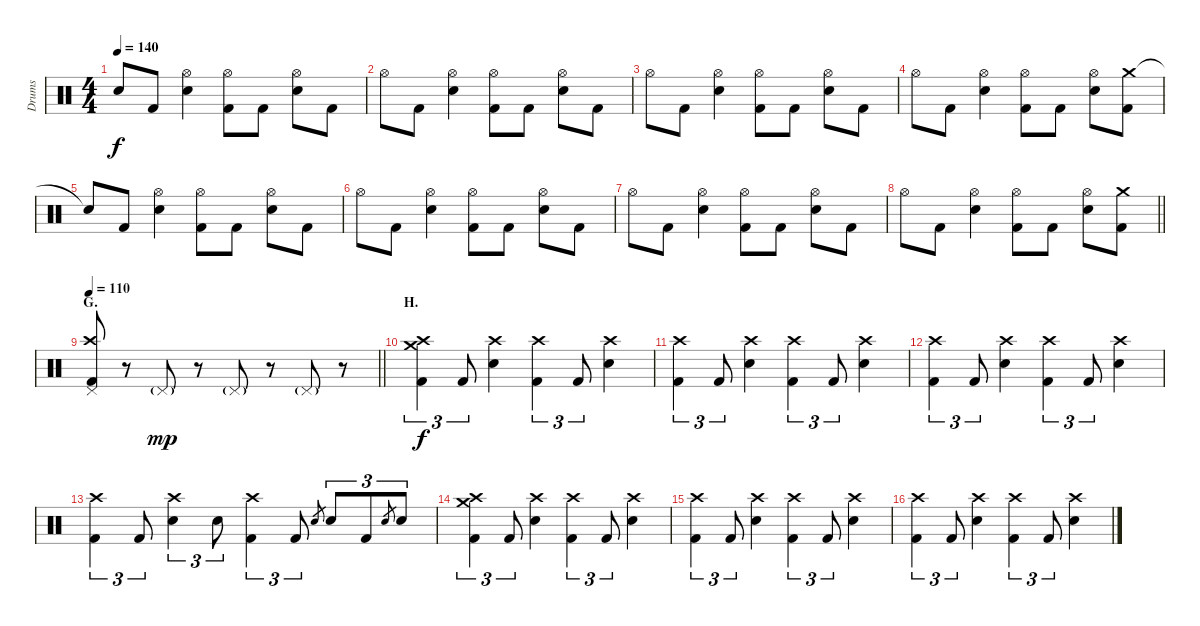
\track ("Drums" "Drums") {instrument percussion}
\staff {score}
\articulation defaults
\ts (4 4)
\tempo 140
\clef neutral
\ks c "Snare (hit)"{t}.8{dy f} "Kick (hit) 2".8
("Hi-Hat (open)" "Electric Snare (hit)").4 ("Hi-Hat (open)" "Kick (hit) 2").8 "Kick (hit) 2".8 ("Hi-Hat (open)" "Electric Snare (hit)").8 "Kick (hit) 2".8 |
"Hi-Hat (open)".8 "Kick (hit) 2".8 ("Hi-Hat (open)" "Electric Snare (hit)").4 ("Hi-Hat (open)" "Kick (hit) 2").8 "Kick (hit) 2".8 ("Hi-Hat (open)" "Electric Snare (hit)").8 "Kick (hit) 2".8 |
"Hi-Hat (open)".8 "Kick (hit) 2".8 ("Hi-Hat (open)" "Electric Snare (hit)").4 ("Hi-Hat (open)" "Kick (hit) 2").8 "Kick (hit) 2".8 ("Hi-Hat (open)" "Electric Snare (hit)").8 "Kick (hit) 2".8 |
"Hi-Hat (open)".8 "Kick (hit) 2".8 ("Hi-Hat (open)" "Electric Snare (hit)").4 ("Hi-Hat (open)" "Kick (hit) 2").8 "Kick (hit) 2".8 ("Hi-Hat (open)" "Electric Snare (hit)").8 ("Crash medium (hit)" "Kick (hit) 2").8 |
"Snare (hit)"{t}.8 "Kick (hit) 2".8 ("Hi-Hat (open)" "Electric Snare (hit)").4 ("Hi-Hat (open)" "Kick (hit) 2").8 "Kick (hit) 2".8 ("Hi-Hat (open)" "Electric Snare (hit)").8 "Kick (hit) 2".8 |
"Hi-Hat (open)".8 "Kick (hit) 2".8 ("Hi-Hat (open)" "Electric Snare (hit)").4 ("Hi-Hat (open)" "Kick (hit) 2").8 "Kick (hit) 2".8 ("Hi-Hat (open)" "Electric Snare (hit)").8 "Kick (hit) 2".8 |
"Hi-Hat (open)".8 "Kick (hit) 2".8 ("Hi-Hat (open)" "Electric Snare (hit)").4 ("Hi-Hat (open)" "Kick (hit) 2").8 "Kick (hit) 2".8 ("Hi-Hat (open)" "Electric Snare (hit)").8 "Kick (hit) 2".8 |
\barLineRight lightlight "Hi-Hat (open)".8 "Kick (hit) 2".8
("Hi-Hat (open)" "Electric Snare (hit)").4 ("Hi-Hat (open)" "Kick (hit) 2").8 "Kick (hit) 2".8 ("Hi-Hat (open)" "Electric Snare (hit)").8 ("Crash medium (hit)" "Kick (hit) 2").8 |
\section ("" "G.")
\tempo 110
\barLineRight lightlight
("Crash high (hit)" "Pedal Hi-Hat (hit)" "Kick (hit) 2").8 r.8 "Pedal Hi-Hat (hit)"{g}.8{dy mp} r.8 "Pedal Hi-Hat (hit)"{g}.8 r.8 "Pedal Hi-Hat (hit)"{g}.8 r.8 |
\section ("" "H.")
("Crash medium (hit)" "Crash high (hit)" "Kick (hit) 2").4{tu (3 2) dy f} "Kick (hit) 2".8{tu (3 2)} ("Crash high (hit)" "Electric Snare (hit)").4 ("Crash high (hit)" "Kick (hit) 2").4{tu (3 2)} "Kick (hit) 2".8{tu (3 2)} ("Crash high (hit)" "Electric Snare (hit)").4 |
("Crash high (hit)" "Kick (hit) 2").4{tu (3 2)} "Kick (hit) 2".8{tu (3 2)} ("Crash high (hit)" "Electric Snare (hit)").4 ("Crash high (hit)" "Kick (hit) 2").4{tu (3 2)} "Kick (hit) 2".8{tu (3 2)} ("Crash high (hit)" "Electric Snare (hit)").4 |
("Crash high (hit)" "Kick (hit) 2").4{tu (3 2)} "Kick (hit) 2".8{tu (3 2)} ("Crash high (hit)" "Electric Snare (hit)").4 ("Crash high (hit)" "Kick (hit) 2").4{tu (3 2)} "Kick (hit) 2".8{tu (3 2)} ("Crash high (hit)" "Electric Snare (hit)").4 |
("Crash high (hit)" "Kick (hit) 2").4{tu (3 2)} "Kick (hit) 2".8{tu (3 2)} ("Crash high (hit)" "Electric Snare (hit)").4{tu (3 2)} "Electric Snare (hit)".8{tu (3 2)} ("Crash high (hit)" "Kick (hit) 2").4{tu (3 2)} "Kick (hit) 2".8{tu (3 2)} "Electric Snare (hit)".8{gr} "Electric Snare (hit)".8{tu (3 2)} "Kick (hit) 2".8{tu (3 2)} "Electric Snare (hit)".8{gr} "Electric Snare (hit)".8{tu (3 2)} |
("Crash medium (hit)" "Crash high (hit)" "Kick (hit) 2").4{tu (3 2)} "Kick (hit) 2".8{tu (3 2)} ("Crash high (hit)" "Electric Snare (hit)").4 ("Crash high (hit)" "Kick (hit) 2").4{tu (3 2)} "Kick (hit) 2".8{tu (3 2)} ("Crash high (hit)" "Electric Snare (hit)").4 |
("Crash high (hit)" "Kick (hit) 2").4{tu (3 2)} "Kick (hit) 2".8{tu (3 2)} ("Crash high (hit)" "Electric Snare (hit)").4 ("Crash high (hit)" "Kick (hit) 2").4{tu (3 2)} "Kick (hit) 2".8{tu (3 2)} ("Crash high (hit)" "Electric Snare (hit)").4 |
("Crash high (hit)" "Kick (hit) 2").4{tu (3 2)} "Kick (hit) 2".8{tu (3 2)} ("Crash high (hit)" "Electric Snare (hit)").4 ("Crash high (hit)" "Kick (hit) 2").4{tu (3 2)} "Kick (hit) 2".8{tu (3 2)} ("Crash high (hit)" "Electric Snare (hit)").4
